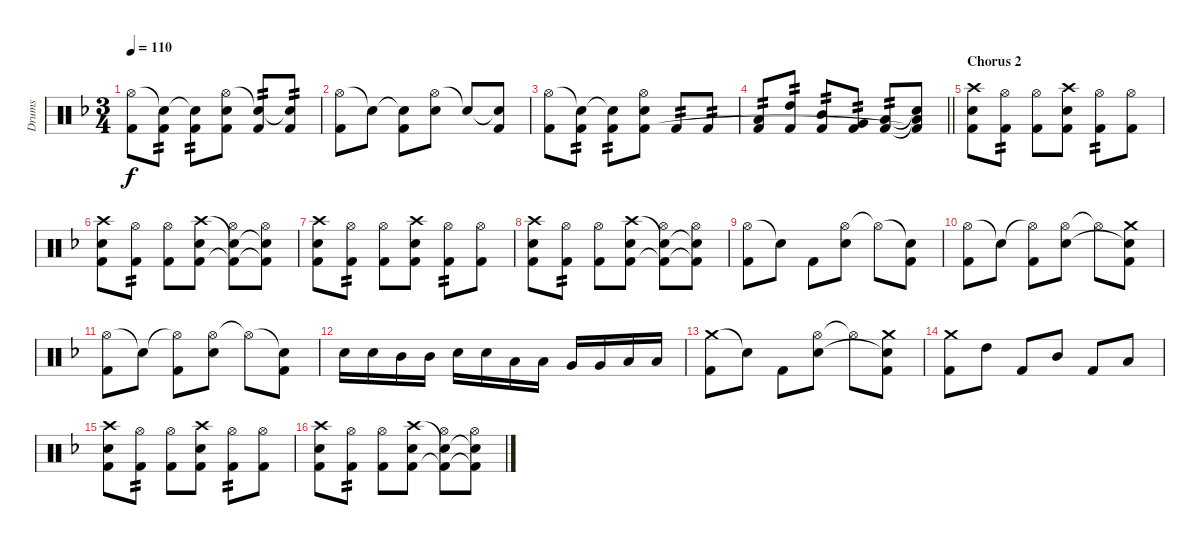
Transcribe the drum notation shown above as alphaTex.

\track ("Drums" "Drums") {instrument percussion}
\staff {score}
\articulation defaults
\ts (3 4)
\tempo 110
\clef neutral
\ks dminor
("Hi-Hat (open)" "Kick (hit) 2").8{dy f} ("Snare (hit)"{t} "Kick (hit) 2").8{tp 2} ("Snare (hit)"{t} "Kick (hit) 2").8{tp 2} ("Hi-Hat (open)" "Snare (hit) 2" "Kick (hit) 2").8 ("Snare (hit)"{t} "Kick (hit) 2").8{tp 2} ("Snare (hit)"{t} "Kick (hit) 2").8{tp 2} |
("Hi-Hat (open)" "Kick (hit) 2").8 "Snare (hit)"{t}.8 ("Snare (hit)"{t} "Kick (hit) 2").8 ("Hi-Hat (open)" "Snare (hit) 2").8 "Snare (hit)"{t}.8 ("Snare (hit)"{t} "Kick (hit) 2").8 |
("Hi-Hat (open)" "Kick (hit) 2").8 ("Snare (hit)"{t} "Kick (hit) 2").8{tp 2} ("Snare (hit)"{t} "Kick (hit) 2").8{tp 2} ("Hi-Hat (open)" "Snare (hit) 2" "Kick (hit) 2").8 "Kick (hit) 2".8{tp 2} "Kick (hit) 2".8{tp 2} |
\barLineRight lightlight
("Low Tom (hit)" "Kick (hit) 2").8{tp 2} ("High Tom (hit)" "Kick (hit) 2").8{tp 2} ("Mid Tom (hit)" "Kick (hit) 2").8{tp 2} ("Very Low Tom (hit)" "Kick (hit) 2").8{tp 2} ("Low Tom (hit)" "Kick (hit) 2").8{tp 2} ("Snare (hit)"{t} "Low Tom (hit)"{t} "Kick (hit) 2"{t}).8 |
\section ("" "Chorus 2")
("Crash high (hit)" "Snare (hit) 2" "Kick (hit) 2").8 ("Hi-Hat (open)" "Kick (hit) 2").8{tp 2} ("Hi-Hat (open)" "Kick (hit) 2").8 ("Crash high (hit)" "Snare (hit) 2" "Kick (hit) 2").8 ("Hi-Hat (open)" "Kick (hit) 2").8{tp 2} ("Hi-Hat (open)" "Kick (hit) 2").8 |
("Crash high (hit)" "Snare (hit) 2" "Kick (hit) 2").8 ("Hi-Hat (open)" "Kick (hit) 2").8{tp 2} ("Hi-Hat (open)" "Kick (hit) 2").8 ("Crash high (hit)" "Snare (hit) 2" "Kick (hit) 2").8 ("Snare (hit)"{t} "Hi-Hat (open)" "Kick (hit) 2"{t}).8 ("Snare (hit)"{t} "Hi-Hat (open)" "Kick (hit) 2"{t}).8 |
("Crash high (hit)" "Snare (hit) 2" "Kick (hit) 2").8 ("Hi-Hat (open)" "Kick (hit) 2").8{tp 2} ("Hi-Hat (open)" "Kick (hit) 2").8 ("Crash high (hit)" "Snare (hit) 2" "Kick (hit) 2").8 ("Hi-Hat (open)" "Kick (hit) 2").8{tp 2} ("Hi-Hat (open)" "Kick (hit) 2").8 |
("Crash high (hit)" "Snare (hit) 2" "Kick (hit) 2").8 ("Hi-Hat (open)" "Kick (hit) 2").8{tp 2} ("Hi-Hat (open)" "Kick (hit) 2").8 ("Crash high (hit)" "Snare (hit) 2" "Kick (hit) 2").8 ("Snare (hit)"{t} "Hi-Hat (open)" "Kick (hit) 2"{t}).8 ("Snare (hit)"{t} "Hi-Hat (open)" "Kick (hit) 2"{t}).8 |
("Hi-Hat (open)" "Kick (hit) 2").8 "Snare (hit)"{t}.8 "Kick (hit) 2".8 ("Hi-Hat (open)" "Snare (hit) 2").8 "Hi-Hat (open)"{t}.8 ("Snare (hit)"{t} "Kick (hit) 2").8 |
("Hi-Hat (open)" "Kick (hit) 2").8 "Snare (hit)"{t}.8 ("Hi-Hat (open)"{t} "Kick (hit) 2").8 ("Hi-Hat (open)" "Snare (hit) 2").8 "Hi-Hat (open)"{t}.8 ("Crash medium (hit)" "Snare (hit)"{t} "Kick (hit) 2").8 |
("Hi-Hat (open)" "Kick (hit) 2").8 "Snare (hit)"{t}.8 ("Hi-Hat (open)"{t} "Kick (hit) 2").8 ("Hi-Hat (open)" "Snare (hit) 2").8 "Hi-Hat (open)"{t}.8 ("Snare (hit)"{t} "Kick (hit) 2").8 |
"Snare (hit) 2".16 "Snare (hit) 2".16 "Mid Tom (hit)".16 "Mid Tom (hit)".16 "Snare (hit) 2".16 "Snare (hit) 2".16 "Low Tom (hit)".16 "Low Tom (hit)".16 "Very Low Tom (hit)".16 "Very Low Tom (hit)".16 "Low Floor Tom (hit)".16 "Low Floor Tom (hit)".16 |
("Crash medium (hit)" "Kick (hit) 2").8 "Snare (hit)"{t}.8 "Kick (hit) 2".8 ("Hi-Hat (open)" "Snare (hit) 2").8 "Hi-Hat (open)"{t}.8 ("Crash medium (hit)" "Snare (hit)"{t} "Kick (hit) 2").8 |
("Crash medium (hit)" "Kick (hit) 2").8 "High Tom (hit)".8 "Kick (hit) 2".8 "Mid Tom (hit)".8 "Kick (hit) 2".8 "Low Tom (hit)".8 |
("Crash high (hit)" "Snare (hit) 2" "Kick (hit) 2").8 ("Hi-Hat (open)" "Kick (hit) 2").8{tp 2} ("Hi-Hat (open)" "Kick (hit) 2").8 ("Crash high (hit)" "Snare (hit) 2" "Kick (hit) 2").8 ("Hi-Hat (open)" "Kick (hit) 2").8{tp 2} ("Hi-Hat (open)" "Kick (hit) 2").8 |
("Crash high (hit)" "Snare (hit) 2" "Kick (hit) 2").8 ("Hi-Hat (open)" "Kick (hit) 2").8{tp 2} ("Hi-Hat (open)" "Kick (hit) 2").8 ("Crash high (hit)" "Snare (hit) 2" "Kick (hit) 2").8 ("Snare (hit)"{t} "Hi-Hat (open)" "Kick (hit) 2"{t}).8 ("Snare (hit)"{t} "Hi-Hat (open)" "Kick (hit) 2"{t}).8
